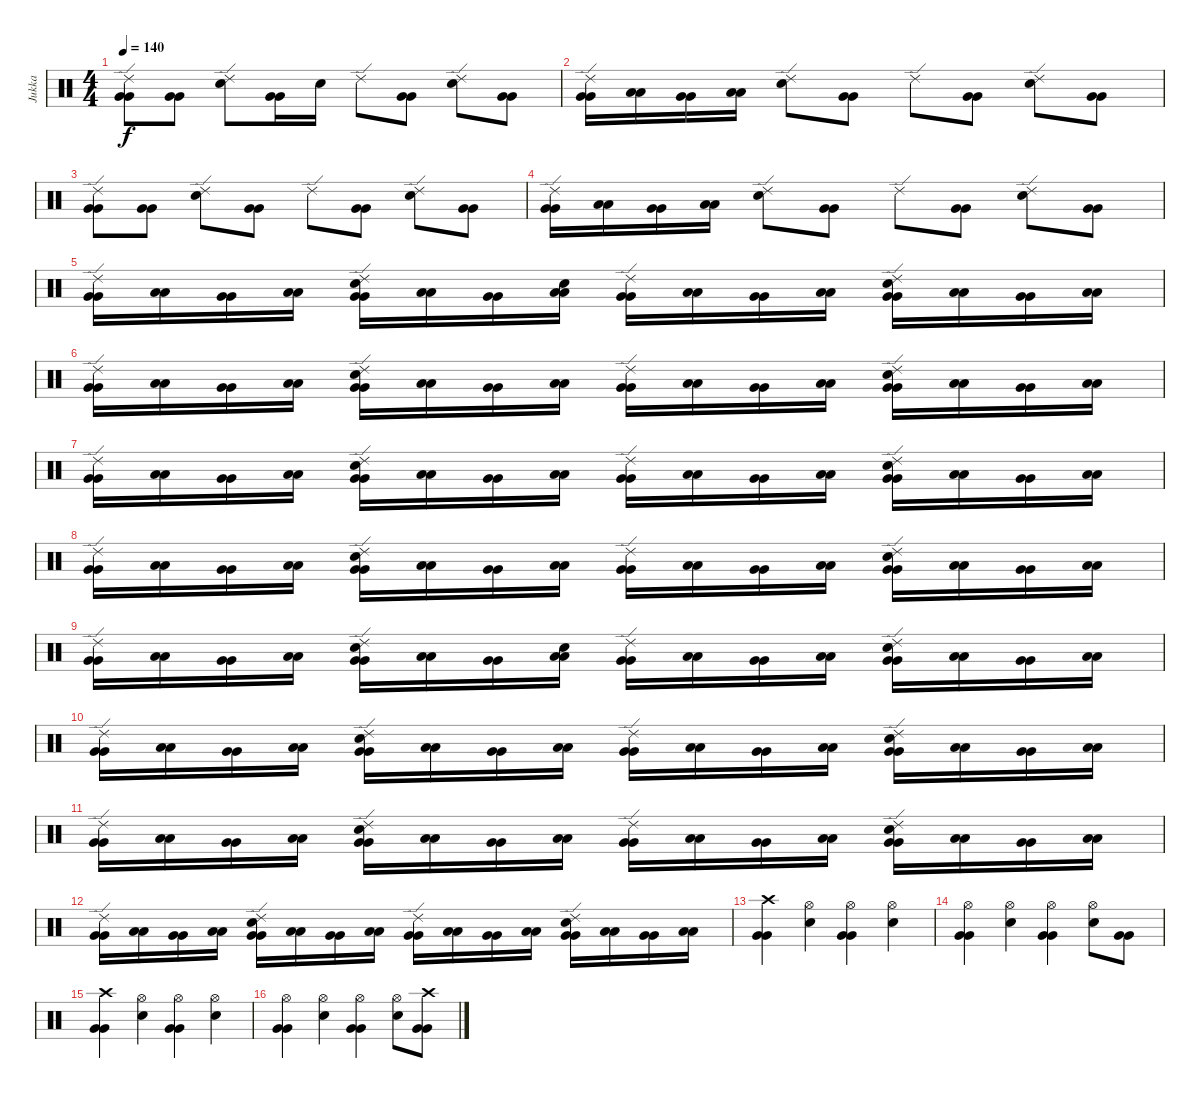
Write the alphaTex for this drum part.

\track ("Jukka" "Jukka") {instrument percussion}
\staff {score}
\articulation defaults
\ts (4 4)
\tempo 140
\clef neutral
\ks c
("Ride (edge) 2" "Very Low Tom (hit)" "Very Low Tom (hit)").8{dy f} ("Very Low Tom (hit)" "Very Low Tom (hit)").8 ("Ride (edge) 2" "Electric Snare (hit)").8 ("Very Low Tom (hit)" "Very Low Tom (hit)").16 "Electric Snare (hit)".16 "Ride (edge) 2".8 ("Very Low Tom (hit)" "Very Low Tom (hit)").8 ("Ride (edge) 2" "Electric Snare (hit)").8 ("Very Low Tom (hit)" "Very Low Tom (hit)").8 |
("Ride (edge) 2" "Very Low Tom (hit)" "Very Low Tom (hit)").16 ("Low Floor Tom (hit)" "Low Floor Tom (hit)").16 ("Very Low Tom (hit)" "Very Low Tom (hit)").16 ("Low Floor Tom (hit)" "Low Floor Tom (hit)").16 ("Ride (edge) 2" "Electric Snare (hit)").8 ("Very Low Tom (hit)" "Very Low Tom (hit)").8 "Ride (edge) 2".8 ("Very Low Tom (hit)" "Very Low Tom (hit)").8 ("Ride (edge) 2" "Electric Snare (hit)").8 ("Very Low Tom (hit)" "Very Low Tom (hit)").8 |
("Ride (edge) 2" "Very Low Tom (hit)" "Very Low Tom (hit)").8 ("Very Low Tom (hit)" "Very Low Tom (hit)").8 ("Ride (edge) 2" "Electric Snare (hit)").8 ("Very Low Tom (hit)" "Very Low Tom (hit)").8 "Ride (edge) 2".8 ("Very Low Tom (hit)" "Very Low Tom (hit)").8 ("Ride (edge) 2" "Electric Snare (hit)").8 ("Very Low Tom (hit)" "Very Low Tom (hit)").8 |
("Ride (edge) 2" "Very Low Tom (hit)" "Very Low Tom (hit)").16 ("Low Floor Tom (hit)" "Low Floor Tom (hit)").16 ("Very Low Tom (hit)" "Very Low Tom (hit)").16 ("Low Floor Tom (hit)" "Low Floor Tom (hit)").16 ("Ride (edge) 2" "Electric Snare (hit)").8 ("Very Low Tom (hit)" "Very Low Tom (hit)").8 "Ride (edge) 2".8 ("Very Low Tom (hit)" "Very Low Tom (hit)").8 ("Ride (edge) 2" "Electric Snare (hit)").8 ("Very Low Tom (hit)" "Very Low Tom (hit)").8 |
("Ride (edge) 2" "Very Low Tom (hit)" "Very Low Tom (hit)").16 ("Low Floor Tom (hit)" "Low Floor Tom (hit)").16 ("Very Low Tom (hit)" "Very Low Tom (hit)").16 ("Low Floor Tom (hit)" "Low Floor Tom (hit)").16 ("Ride (edge) 2" "Electric Snare (hit)" "Very Low Tom (hit)" "Very Low Tom (hit)").16 ("Low Floor Tom (hit)" "Low Floor Tom (hit)").16 ("Very Low Tom (hit)" "Very Low Tom (hit)").16 ("Electric Snare (hit)" "Low Floor Tom (hit)" "Low Floor Tom (hit)").16 ("Ride (edge) 2" "Very Low Tom (hit)" "Very Low Tom (hit)").16 ("Low Floor Tom (hit)" "Low Floor Tom (hit)").16 ("Very Low Tom (hit)" "Very Low Tom (hit)").16 ("Low Floor Tom (hit)" "Low Floor Tom (hit)").16 ("Ride (edge) 2" "Electric Snare (hit)" "Very Low Tom (hit)" "Very Low Tom (hit)").16 ("Low Floor Tom (hit)" "Low Floor Tom (hit)").16 ("Very Low Tom (hit)" "Very Low Tom (hit)").16 ("Low Floor Tom (hit)" "Low Floor Tom (hit)").16 |
("Ride (edge) 2" "Very Low Tom (hit)" "Very Low Tom (hit)").16 ("Low Floor Tom (hit)" "Low Floor Tom (hit)").16 ("Very Low Tom (hit)" "Very Low Tom (hit)").16 ("Low Floor Tom (hit)" "Low Floor Tom (hit)").16 ("Ride (edge) 2" "Electric Snare (hit)" "Very Low Tom (hit)" "Very Low Tom (hit)").16 ("Low Floor Tom (hit)" "Low Floor Tom (hit)").16 ("Very Low Tom (hit)" "Very Low Tom (hit)").16 ("Low Floor Tom (hit)" "Low Floor Tom (hit)").16 ("Ride (edge) 2" "Very Low Tom (hit)" "Very Low Tom (hit)").16 ("Low Floor Tom (hit)" "Low Floor Tom (hit)").16 ("Very Low Tom (hit)" "Very Low Tom (hit)").16 ("Low Floor Tom (hit)" "Low Floor Tom (hit)").16 ("Ride (edge) 2" "Electric Snare (hit)" "Very Low Tom (hit)" "Very Low Tom (hit)").16 ("Low Floor Tom (hit)" "Low Floor Tom (hit)").16 ("Very Low Tom (hit)" "Very Low Tom (hit)").16 ("Low Floor Tom (hit)" "Low Floor Tom (hit)").16 |
("Ride (edge) 2" "Very Low Tom (hit)" "Very Low Tom (hit)").16 ("Low Floor Tom (hit)" "Low Floor Tom (hit)").16 ("Very Low Tom (hit)" "Very Low Tom (hit)").16 ("Low Floor Tom (hit)" "Low Floor Tom (hit)").16 ("Ride (edge) 2" "Electric Snare (hit)" "Very Low Tom (hit)" "Very Low Tom (hit)").16 ("Low Floor Tom (hit)" "Low Floor Tom (hit)").16 ("Very Low Tom (hit)" "Very Low Tom (hit)").16 ("Low Floor Tom (hit)" "Low Floor Tom (hit)").16 ("Ride (edge) 2" "Very Low Tom (hit)" "Very Low Tom (hit)").16 ("Low Floor Tom (hit)" "Low Floor Tom (hit)").16 ("Very Low Tom (hit)" "Very Low Tom (hit)").16 ("Low Floor Tom (hit)" "Low Floor Tom (hit)").16 ("Ride (edge) 2" "Electric Snare (hit)" "Very Low Tom (hit)" "Very Low Tom (hit)").16 ("Low Floor Tom (hit)" "Low Floor Tom (hit)").16 ("Very Low Tom (hit)" "Very Low Tom (hit)").16 ("Low Floor Tom (hit)" "Low Floor Tom (hit)").16 |
("Ride (edge) 2" "Very Low Tom (hit)" "Very Low Tom (hit)").16 ("Low Floor Tom (hit)" "Low Floor Tom (hit)").16 ("Very Low Tom (hit)" "Very Low Tom (hit)").16 ("Low Floor Tom (hit)" "Low Floor Tom (hit)").16 ("Ride (edge) 2" "Electric Snare (hit)" "Very Low Tom (hit)" "Very Low Tom (hit)").16 ("Low Floor Tom (hit)" "Low Floor Tom (hit)").16 ("Very Low Tom (hit)" "Very Low Tom (hit)").16 ("Low Floor Tom (hit)" "Low Floor Tom (hit)").16 ("Ride (edge) 2" "Very Low Tom (hit)" "Very Low Tom (hit)").16 ("Low Floor Tom (hit)" "Low Floor Tom (hit)").16 ("Very Low Tom (hit)" "Very Low Tom (hit)").16 ("Low Floor Tom (hit)" "Low Floor Tom (hit)").16 ("Ride (edge) 2" "Electric Snare (hit)" "Very Low Tom (hit)" "Very Low Tom (hit)").16 ("Low Floor Tom (hit)" "Low Floor Tom (hit)").16 ("Very Low Tom (hit)" "Very Low Tom (hit)").16 ("Low Floor Tom (hit)" "Low Floor Tom (hit)").16 |
("Ride (edge) 2" "Very Low Tom (hit)" "Very Low Tom (hit)").16 ("Low Floor Tom (hit)" "Low Floor Tom (hit)").16 ("Very Low Tom (hit)" "Very Low Tom (hit)").16 ("Low Floor Tom (hit)" "Low Floor Tom (hit)").16 ("Ride (edge) 2" "Electric Snare (hit)" "Very Low Tom (hit)" "Very Low Tom (hit)").16 ("Low Floor Tom (hit)" "Low Floor Tom (hit)").16 ("Very Low Tom (hit)" "Very Low Tom (hit)").16 ("Electric Snare (hit)" "Low Floor Tom (hit)" "Low Floor Tom (hit)").16 ("Ride (edge) 2" "Very Low Tom (hit)" "Very Low Tom (hit)").16 ("Low Floor Tom (hit)" "Low Floor Tom (hit)").16 ("Very Low Tom (hit)" "Very Low Tom (hit)").16 ("Low Floor Tom (hit)" "Low Floor Tom (hit)").16 ("Ride (edge) 2" "Electric Snare (hit)" "Very Low Tom (hit)" "Very Low Tom (hit)").16 ("Low Floor Tom (hit)" "Low Floor Tom (hit)").16 ("Very Low Tom (hit)" "Very Low Tom (hit)").16 ("Low Floor Tom (hit)" "Low Floor Tom (hit)").16 |
("Ride (edge) 2" "Very Low Tom (hit)" "Very Low Tom (hit)").16 ("Low Floor Tom (hit)" "Low Floor Tom (hit)").16 ("Very Low Tom (hit)" "Very Low Tom (hit)").16 ("Low Floor Tom (hit)" "Low Floor Tom (hit)").16 ("Ride (edge) 2" "Electric Snare (hit)" "Very Low Tom (hit)" "Very Low Tom (hit)").16 ("Low Floor Tom (hit)" "Low Floor Tom (hit)").16 ("Very Low Tom (hit)" "Very Low Tom (hit)").16 ("Low Floor Tom (hit)" "Low Floor Tom (hit)").16 ("Ride (edge) 2" "Very Low Tom (hit)" "Very Low Tom (hit)").16 ("Low Floor Tom (hit)" "Low Floor Tom (hit)").16 ("Very Low Tom (hit)" "Very Low Tom (hit)").16 ("Low Floor Tom (hit)" "Low Floor Tom (hit)").16 ("Ride (edge) 2" "Electric Snare (hit)" "Very Low Tom (hit)" "Very Low Tom (hit)").16 ("Low Floor Tom (hit)" "Low Floor Tom (hit)").16 ("Very Low Tom (hit)" "Very Low Tom (hit)").16 ("Low Floor Tom (hit)" "Low Floor Tom (hit)").16 |
("Ride (edge) 2" "Very Low Tom (hit)" "Very Low Tom (hit)").16 ("Low Floor Tom (hit)" "Low Floor Tom (hit)").16 ("Very Low Tom (hit)" "Very Low Tom (hit)").16 ("Low Floor Tom (hit)" "Low Floor Tom (hit)").16 ("Ride (edge) 2" "Electric Snare (hit)" "Very Low Tom (hit)" "Very Low Tom (hit)").16 ("Low Floor Tom (hit)" "Low Floor Tom (hit)").16 ("Very Low Tom (hit)" "Very Low Tom (hit)").16 ("Low Floor Tom (hit)" "Low Floor Tom (hit)").16 ("Ride (edge) 2" "Very Low Tom (hit)" "Very Low Tom (hit)").16 ("Low Floor Tom (hit)" "Low Floor Tom (hit)").16 ("Very Low Tom (hit)" "Very Low Tom (hit)").16 ("Low Floor Tom (hit)" "Low Floor Tom (hit)").16 ("Ride (edge) 2" "Electric Snare (hit)" "Very Low Tom (hit)" "Very Low Tom (hit)").16 ("Low Floor Tom (hit)" "Low Floor Tom (hit)").16 ("Very Low Tom (hit)" "Very Low Tom (hit)").16 ("Low Floor Tom (hit)" "Low Floor Tom (hit)").16 |
("Ride (edge) 2" "Very Low Tom (hit)" "Very Low Tom (hit)").16 ("Low Floor Tom (hit)" "Low Floor Tom (hit)").16 ("Very Low Tom (hit)" "Very Low Tom (hit)").16 ("Low Floor Tom (hit)" "Low Floor Tom (hit)").16 ("Ride (edge) 2" "Electric Snare (hit)" "Very Low Tom (hit)" "Very Low Tom (hit)").16 ("Low Floor Tom (hit)" "Low Floor Tom (hit)").16 ("Very Low Tom (hit)" "Very Low Tom (hit)").16 ("Low Floor Tom (hit)" "Low Floor Tom (hit)").16 ("Ride (edge) 2" "Very Low Tom (hit)" "Very Low Tom (hit)").16 ("Low Floor Tom (hit)" "Low Floor Tom (hit)").16 ("Very Low Tom (hit)" "Very Low Tom (hit)").16 ("Low Floor Tom (hit)" "Low Floor Tom (hit)").16 ("Ride (edge) 2" "Electric Snare (hit)" "Very Low Tom (hit)" "Very Low Tom (hit)").16 ("Low Floor Tom (hit)" "Low Floor Tom (hit)").16 ("Very Low Tom (hit)" "Very Low Tom (hit)").16 ("Low Floor Tom (hit)" "Low Floor Tom (hit)").16 |
("Crash high (hit)" "Very Low Tom (hit)" "Very Low Tom (hit)").4 ("Hi-Hat (open)" "Electric Snare (hit)").4 ("Hi-Hat (open)" "Very Low Tom (hit)" "Very Low Tom (hit)").4 ("Hi-Hat (open)" "Electric Snare (hit)").4 |
("Hi-Hat (open)" "Very Low Tom (hit)" "Very Low Tom (hit)").4 ("Hi-Hat (open)" "Electric Snare (hit)").4 ("Hi-Hat (open)" "Very Low Tom (hit)" "Very Low Tom (hit)").4 ("Hi-Hat (open)" "Electric Snare (hit)").8 ("Very Low Tom (hit)" "Very Low Tom (hit)").8 |
("Crash high (hit)" "Very Low Tom (hit)" "Very Low Tom (hit)").4 ("Hi-Hat (open)" "Electric Snare (hit)").4 ("Hi-Hat (open)" "Very Low Tom (hit)" "Very Low Tom (hit)").4 ("Hi-Hat (open)" "Electric Snare (hit)").4 |
("Hi-Hat (open)" "Very Low Tom (hit)" "Very Low Tom (hit)").4 ("Hi-Hat (open)" "Electric Snare (hit)").4 ("Hi-Hat (open)" "Very Low Tom (hit)" "Very Low Tom (hit)").4 ("Hi-Hat (open)" "Electric Snare (hit)").8 ("Crash high (hit)" "Very Low Tom (hit)" "Very Low Tom (hit)").8
